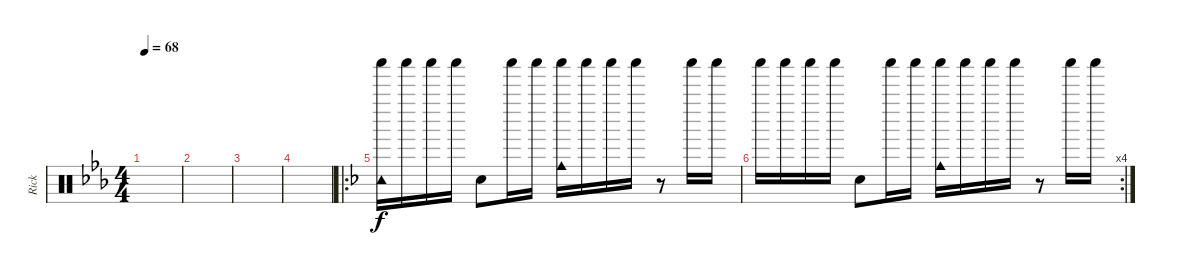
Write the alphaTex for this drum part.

\track ("Rick" "Rick") {instrument percussion}
\staff {score}
\articulation defaults
\ts (4 4)
\tempo 68
\clef neutral
\ks eb
|
|
|
|
\ro
\ks dminor
("Tambourine (hit)" "Shaker (hit)").16 "Shaker (hit)".16 "Shaker (hit)".16 "Shaker (hit)".16 "Hand Clap (hit)".8 "Shaker (hit)".16 "Shaker (hit)".16 ("Cowbell medium (hit)" "Shaker (hit)").16 "Shaker (hit)".16 "Shaker (hit)".16 "Shaker (hit)".16 r.8 "Shaker (hit)".16 "Shaker (hit)".16 |
\rc 4 "Shaker (hit)".16 "Shaker (hit)".16 "Shaker (hit)".16 "Shaker (hit)".16 "Hand Clap (hit)".8 "Shaker (hit)".16 "Shaker (hit)".16
("Cowbell medium (hit)" "Shaker (hit)").16 "Shaker (hit)".16 "Shaker (hit)".16 "Shaker (hit)".16 r.8 "Shaker (hit)".16 "Shaker (hit)".16
